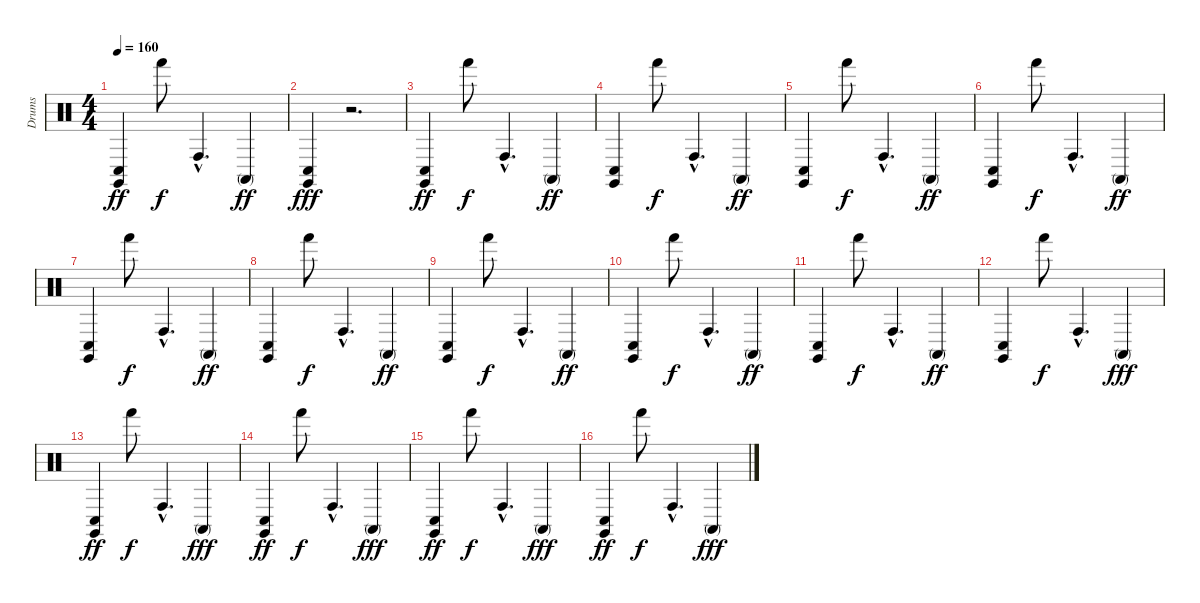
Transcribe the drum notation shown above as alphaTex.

\track ("Drums" "Drums") {instrument percussion}
\staff {score}
\articulation defaults
\ts (4 4)
\tempo 160
\clef neutral
\ks c
("Claves (hit)" "Conga low (hit)").4{dy ff} "Hand (hit)".8{dy f} "Conga high (hit)"{hac}.4{d} "Conga high (mute)".4{dy ff} |
("Claves (hit)" "Conga low (hit)").4{dy fff} r.2{d} |
("Claves (hit)" "Conga low (hit)").4{dy ff} "Hand (hit)".8{dy f} "Conga high (hit)"{hac}.4{d} "Conga high (mute)".4{dy ff} |
("Claves (hit)" "Conga low (hit)").4 "Hand (hit)".8{dy f} "Conga high (hit)"{hac}.4{d} "Conga high (mute)".4{dy ff} |
("Claves (hit)" "Conga low (hit)").4 "Hand (hit)".8{dy f} "Conga high (hit)"{hac}.4{d} "Conga high (mute)".4{dy ff} |
("Claves (hit)" "Conga low (hit)").4 "Hand (hit)".8{dy f} "Conga high (hit)"{hac}.4{d} "Conga high (mute)".4{dy ff} |
("Claves (hit)" "Conga low (hit)").4 "Hand (hit)".8{dy f} "Conga high (hit)"{hac}.4{d} "Conga high (mute)".4{dy ff} |
("Claves (hit)" "Conga low (hit)").4 "Hand (hit)".8{dy f} "Conga high (hit)"{hac}.4{d} "Conga high (mute)".4{dy ff} |
("Claves (hit)" "Conga low (hit)").4 "Hand (hit)".8{dy f} "Conga high (hit)"{hac}.4{d} "Conga high (mute)".4{dy ff} |
("Claves (hit)" "Conga low (hit)").4 "Hand (hit)".8{dy f} "Conga high (hit)"{hac}.4{d} "Conga high (mute)".4{dy ff} |
("Claves (hit)" "Conga low (hit)").4 "Hand (hit)".8{dy f} "Conga high (hit)"{hac}.4{d} "Conga high (mute)".4{dy ff} |
("Claves (hit)" "Conga low (hit)").4 "Hand (hit)".8{dy f} "Conga high (hit)"{hac}.4{d} "Conga high (mute)".4{dy fff} |
("Claves (hit)" "Conga low (hit)").4{dy ff} "Hand (hit)".8{dy f} "Conga high (hit)"{hac}.4{d} "Conga high (mute)".4{dy fff} |
("Claves (hit)" "Conga low (hit)").4{dy ff} "Hand (hit)".8{dy f} "Conga high (hit)"{hac}.4{d} "Conga high (mute)".4{dy fff} |
("Claves (hit)" "Conga low (hit)").4{dy ff} "Hand (hit)".8{dy f} "Conga high (hit)"{hac}.4{d} "Conga high (mute)".4{dy fff} |
("Claves (hit)" "Conga low (hit)").4{dy ff} "Hand (hit)".8{dy f} "Conga high (hit)"{hac}.4{d} "Conga high (mute)".4{dy fff}
